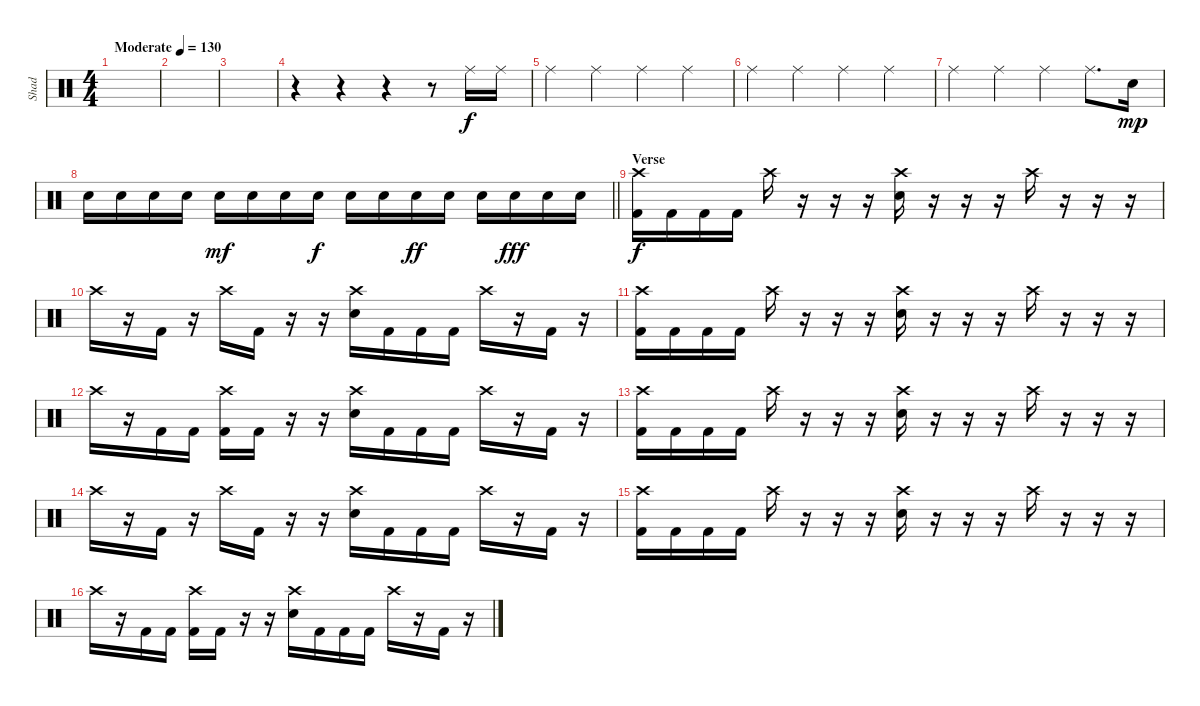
\track ("Shad" "Shad") {instrument percussion}
\staff {score}
\articulation defaults
\ts (4 4)
\tempo (130 "Moderate")
\clef neutral
\ks c
|
|
|
r.4 r.4 r.4 r.8 "Ride (middle)".16 "Ride (middle)".16 |
"Ride (middle)".4 "Ride (middle)".4 "Ride (middle)".4 "Ride (middle)".4 |
"Ride (middle)".4 "Ride (middle)".4 "Ride (middle)".4 "Ride (middle)".4 |
"Ride (middle)".4 "Ride (middle)".4 "Ride (middle)".4 "Ride (middle)".8{d} "Electric Snare (hit)".16{dy mp} |
\barLineRight lightlight "Electric Snare (hit)".16 "Electric Snare (hit)".16 "Electric Snare (hit)".16 "Electric Snare (hit)".16 "Electric Snare (hit)".16{dy mf} "Electric Snare (hit)".16 "Electric Snare (hit)".16 "Electric Snare (hit)".16{dy f} "Electric Snare (hit)".16 "Electric Snare (hit)".16 "Electric Snare (hit)".16{dy ff} "Electric Snare (hit)".16 "Electric Snare (hit)".16 "Electric Snare (hit)".16{dy fff} "Electric Snare (hit)".16 "Electric Snare (hit)".16
|
\section ("" "Verse")
("Crash high (hit)" "Kick (hit) 2").16{dy f} "Kick (hit) 2".16 "Kick (hit) 2".16 "Kick (hit) 2".16 "Crash high (hit)".16 r.16 r.16 r.16 ("Crash high (hit)" "Electric Snare (hit)").16 r.16 r.16 r.16 "Crash high (hit)".16 r.16 r.16 r.16 |
"Crash high (hit)".16 r.16 "Kick (hit) 2".16 r.16 "Crash high (hit)".16 "Kick (hit) 2".16 r.16 r.16 ("Crash high (hit)" "Electric Snare (hit)").16 "Kick (hit) 2".16 "Kick (hit) 2".16 "Kick (hit) 2".16 "Crash high (hit)".16 r.16 "Kick (hit) 2".16 r.16 |
("Crash high (hit)" "Kick (hit) 2").16 "Kick (hit) 2".16 "Kick (hit) 2".16 "Kick (hit) 2".16 "Crash high (hit)".16 r.16 r.16 r.16 ("Crash high (hit)" "Electric Snare (hit)").16 r.16 r.16 r.16 "Crash high (hit)".16 r.16 r.16 r.16 |
"Crash high (hit)".16 r.16 "Kick (hit) 2".16 "Kick (hit) 2".16 ("Crash high (hit)" "Kick (hit) 2").16 "Kick (hit) 2".16 r.16 r.16 ("Crash high (hit)" "Electric Snare (hit)").16 "Kick (hit) 2".16 "Kick (hit) 2".16 "Kick (hit) 2".16 "Crash high (hit)".16 r.16 "Kick (hit) 2".16 r.16 |
("Crash high (hit)" "Kick (hit) 2").16 "Kick (hit) 2".16 "Kick (hit) 2".16 "Kick (hit) 2".16 "Crash high (hit)".16 r.16 r.16 r.16 ("Crash high (hit)" "Electric Snare (hit)").16 r.16 r.16 r.16 "Crash high (hit)".16 r.16 r.16 r.16 |
"Crash high (hit)".16 r.16 "Kick (hit) 2".16 r.16 "Crash high (hit)".16 "Kick (hit) 2".16 r.16 r.16 ("Crash high (hit)" "Electric Snare (hit)").16 "Kick (hit) 2".16 "Kick (hit) 2".16 "Kick (hit) 2".16 "Crash high (hit)".16 r.16 "Kick (hit) 2".16 r.16 |
("Crash high (hit)" "Kick (hit) 2").16 "Kick (hit) 2".16 "Kick (hit) 2".16 "Kick (hit) 2".16 "Crash high (hit)".16 r.16 r.16 r.16 ("Crash high (hit)" "Electric Snare (hit)").16 r.16 r.16 r.16 "Crash high (hit)".16 r.16 r.16 r.16 |
"Crash high (hit)".16 r.16 "Kick (hit) 2".16 "Kick (hit) 2".16 ("Crash high (hit)" "Kick (hit) 2").16 "Kick (hit) 2".16 r.16 r.16 ("Crash high (hit)" "Electric Snare (hit)").16 "Kick (hit) 2".16 "Kick (hit) 2".16 "Kick (hit) 2".16 "Crash high (hit)".16 r.16 "Kick (hit) 2".16 r.16
